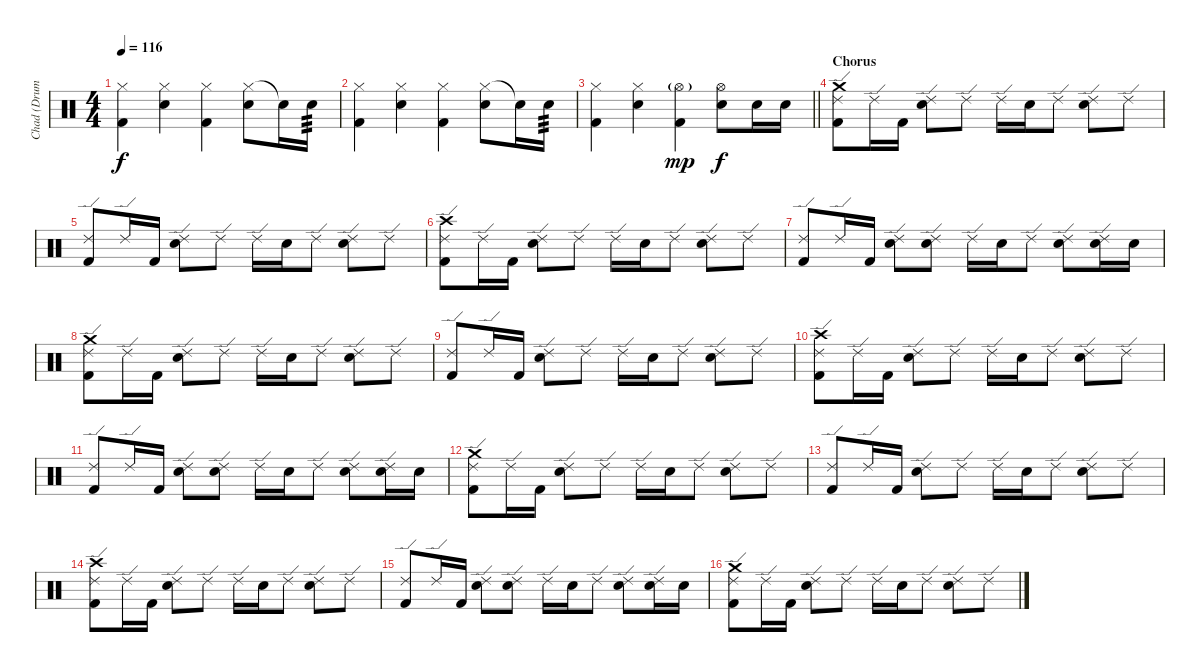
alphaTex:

\track ("Chad (Drums)" "Chad (Drum") {instrument percussion}
\staff {score}
\articulation defaults
\ts (4 4)
\tempo 116
\clef neutral
\ks c
("Hi-Hat (closed)" "Kick (hit) 2").4{dy f} ("Hi-Hat (closed)" "Snare (hit) 2").4 ("Hi-Hat (closed)" "Kick (hit) 2").4 ("Hi-Hat (closed)" "Snare (hit) 2").8 "Snare (hit) 2"{t}.16 "Snare (hit) 2".16{tp 3} |
("Hi-Hat (closed)" "Kick (hit) 2").4 ("Hi-Hat (closed)" "Snare (hit) 2").4 ("Hi-Hat (closed)" "Kick (hit) 2").4 ("Hi-Hat (closed)" "Snare (hit) 2").8 "Snare (hit) 2"{t}.16 "Snare (hit) 2".16{tp 3} |
\barLineRight lightlight
("Hi-Hat (closed)" "Kick (hit) 2").4 ("Hi-Hat (closed)" "Snare (hit) 2").4 ("Hi-Hat (open)"{g} "Kick (hit) 2").4{dy mp} ("Hi-Hat (open)" "Snare (hit) 2").8{dy f} "Snare (hit) 2".16 "Snare (hit) 2".16 |
\section ("" "Chorus")
("Ride (edge) 2" "Crash medium (hit)" "Kick (hit) 2").8 "Ride (edge) 2".16 "Kick (hit) 2".16 ("Ride (edge) 2" "Snare (hit) 2").8 "Ride (edge) 2".8 "Ride (edge) 2".16 "Snare (hit) 2".16 "Ride (edge) 2".8 ("Ride (edge) 2" "Snare (hit) 2").8 "Ride (edge) 2".8 |
("Ride (edge) 2" "Kick (hit) 2").8 "Ride (edge) 2".16 "Kick (hit) 2".16 ("Ride (edge) 2" "Snare (hit) 2").8 "Ride (edge) 2".8 "Ride (edge) 2".16 "Snare (hit) 2".16 "Ride (edge) 2".8 ("Ride (edge) 2" "Snare (hit) 2").8 "Ride (edge) 2".8 |
("Ride (edge) 2" "Crash high (hit)" "Kick (hit) 2").8 "Ride (edge) 2".16 "Kick (hit) 2".16 ("Ride (edge) 2" "Snare (hit) 2").8 "Ride (edge) 2".8 "Ride (edge) 2".16 "Snare (hit) 2".16 "Ride (edge) 2".8 ("Ride (edge) 2" "Snare (hit) 2").8 "Ride (edge) 2".8 |
("Ride (edge) 2" "Kick (hit) 2").8 "Ride (edge) 2".16 "Kick (hit) 2".16 ("Ride (edge) 2" "Snare (hit) 2").8 ("Ride (edge) 2" "Snare (hit) 2").8 "Ride (edge) 2".16 "Snare (hit) 2".16 "Ride (edge) 2".8 ("Ride (edge) 2" "Snare (hit) 2").8 ("Ride (edge) 2" "Snare (hit) 2").16 "Snare (hit) 2".16 |
("Ride (edge) 2" "Crash medium (hit)" "Kick (hit) 2").8 "Ride (edge) 2".16 "Kick (hit) 2".16 ("Ride (edge) 2" "Snare (hit) 2").8 "Ride (edge) 2".8 "Ride (edge) 2".16 "Snare (hit) 2".16 "Ride (edge) 2".8 ("Ride (edge) 2" "Snare (hit) 2").8 "Ride (edge) 2".8 |
("Ride (edge) 2" "Kick (hit) 2").8 "Ride (edge) 2".16 "Kick (hit) 2".16 ("Ride (edge) 2" "Snare (hit) 2").8 "Ride (edge) 2".8 "Ride (edge) 2".16 "Snare (hit) 2".16 "Ride (edge) 2".8 ("Ride (edge) 2" "Snare (hit) 2").8 "Ride (edge) 2".8 |
("Ride (edge) 2" "Crash high (hit)" "Kick (hit) 2").8 "Ride (edge) 2".16 "Kick (hit) 2".16 ("Ride (edge) 2" "Snare (hit) 2").8 "Ride (edge) 2".8 "Ride (edge) 2".16 "Snare (hit) 2".16 "Ride (edge) 2".8 ("Ride (edge) 2" "Snare (hit) 2").8 "Ride (edge) 2".8 |
("Ride (edge) 2" "Kick (hit) 2").8 "Ride (edge) 2".16 "Kick (hit) 2".16 ("Ride (edge) 2" "Snare (hit) 2").8 ("Ride (edge) 2" "Snare (hit) 2").8 "Ride (edge) 2".16 "Snare (hit) 2".16 "Ride (edge) 2".8 ("Ride (edge) 2" "Snare (hit) 2").8 ("Ride (edge) 2" "Snare (hit) 2").16 "Snare (hit) 2".16 |
("Ride (edge) 2" "Crash medium (hit)" "Kick (hit) 2").8 "Ride (edge) 2".16 "Kick (hit) 2".16 ("Ride (edge) 2" "Snare (hit) 2").8 "Ride (edge) 2".8 "Ride (edge) 2".16 "Snare (hit) 2".16 "Ride (edge) 2".8 ("Ride (edge) 2" "Snare (hit) 2").8 "Ride (edge) 2".8 |
("Ride (edge) 2" "Kick (hit) 2").8 "Ride (edge) 2".16 "Kick (hit) 2".16 ("Ride (edge) 2" "Snare (hit) 2").8 "Ride (edge) 2".8 "Ride (edge) 2".16 "Snare (hit) 2".16 "Ride (edge) 2".8 ("Ride (edge) 2" "Snare (hit) 2").8 "Ride (edge) 2".8 |
("Ride (edge) 2" "Crash high (hit)" "Kick (hit) 2").8 "Ride (edge) 2".16 "Kick (hit) 2".16 ("Ride (edge) 2" "Snare (hit) 2").8 "Ride (edge) 2".8 "Ride (edge) 2".16 "Snare (hit) 2".16 "Ride (edge) 2".8 ("Ride (edge) 2" "Snare (hit) 2").8 "Ride (edge) 2".8 |
("Ride (edge) 2" "Kick (hit) 2").8 "Ride (edge) 2".16 "Kick (hit) 2".16 ("Ride (edge) 2" "Snare (hit) 2").8 ("Ride (edge) 2" "Snare (hit) 2").8 "Ride (edge) 2".16 "Snare (hit) 2".16 "Ride (edge) 2".8 ("Ride (edge) 2" "Snare (hit) 2").8 ("Ride (edge) 2" "Snare (hit) 2").16 "Snare (hit) 2".16 |
("Ride (edge) 2" "Crash medium (hit)" "Kick (hit) 2").8 "Ride (edge) 2".16 "Kick (hit) 2".16 ("Ride (edge) 2" "Snare (hit) 2").8 "Ride (edge) 2".8 "Ride (edge) 2".16 "Snare (hit) 2".16 "Ride (edge) 2".8 ("Ride (edge) 2" "Snare (hit) 2").8 "Ride (edge) 2".8
